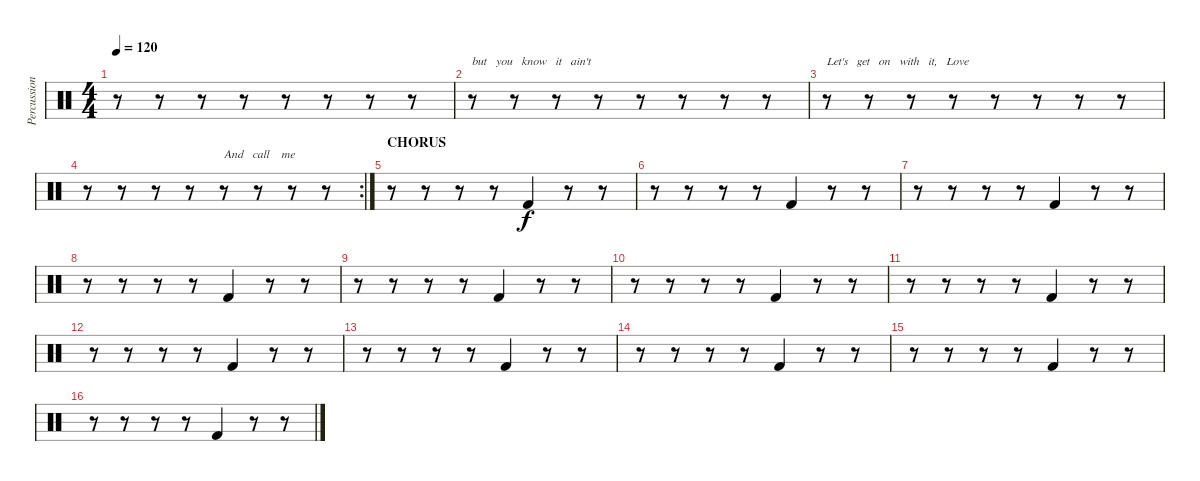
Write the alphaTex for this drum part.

\track ("Percussion" "Percussion") {instrument percussion}
\staff {score}
\articulation defaults
\ts (4 4)
\tempo 120
\clef neutral
\ks c
r.8{dy f} r.8 r.8 r.8 r.8 r.8 r.8 r.8 |
r.8{txt "but   you   know   it   ain't"} r.8 r.8 r.8 r.8 r.8 r.8 r.8 |
r.8{txt "Let's   get   on   with   it,   Love"} r.8 r.8 r.8 r.8 r.8 r.8 r.8 |
\rc 2
r.8 r.8 r.8 r.8 r.8{txt "And   call    me"} r.8 r.8 r.8 |
\section ("" "CHORUS")
r.8 r.8 r.8 r.8 "Kick (hit) 2".4 r.8 r.8 |
r.8 r.8 r.8 r.8 "Kick (hit) 2".4 r.8 r.8 |
r.8 r.8 r.8 r.8 "Kick (hit) 2".4 r.8 r.8 |
r.8 r.8 r.8 r.8 "Kick (hit) 2".4 r.8 r.8 |
r.8 r.8 r.8 r.8 "Kick (hit) 2".4 r.8 r.8 |
r.8 r.8 r.8 r.8 "Kick (hit) 2".4 r.8 r.8 |
r.8 r.8 r.8 r.8 "Kick (hit) 2".4 r.8 r.8 |
r.8 r.8 r.8 r.8 "Kick (hit) 2".4 r.8 r.8 |
r.8 r.8 r.8 r.8 "Kick (hit) 2".4 r.8 r.8 |
r.8 r.8 r.8 r.8 "Kick (hit) 2".4 r.8 r.8 |
r.8 r.8 r.8 r.8 "Kick (hit) 2".4 r.8 r.8 |
r.8 r.8 r.8 r.8 "Kick (hit) 2".4 r.8 r.8
